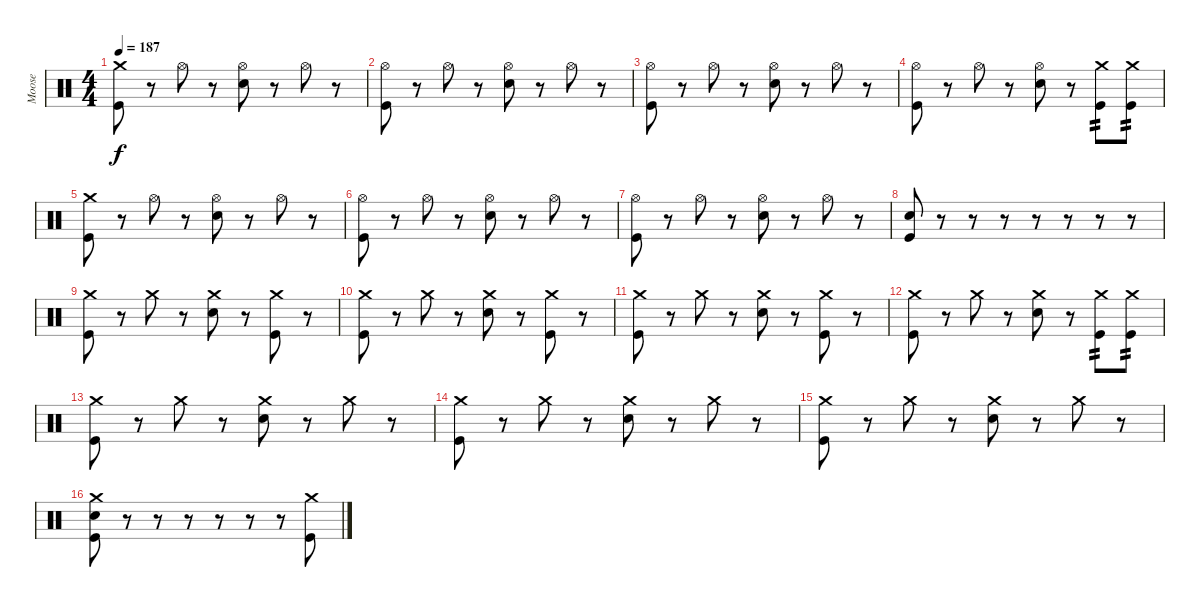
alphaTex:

\track ("Moose" "Moose") {instrument percussion}
\staff {score}
\articulation defaults
\ts (4 4)
\tempo 187
\clef neutral
\ks c
("Crash medium (hit)" "Kick (hit)").8{dy f} r.8 "Hi-Hat (open)".8 r.8 ("Hi-Hat (open)" "Electric Snare (hit)").8 r.8 "Hi-Hat (open)".8 r.8 |
("Hi-Hat (open)" "Kick (hit)").8 r.8 "Hi-Hat (open)".8 r.8 ("Hi-Hat (open)" "Electric Snare (hit)").8 r.8 "Hi-Hat (open)".8 r.8 |
("Hi-Hat (open)" "Kick (hit)").8 r.8 "Hi-Hat (open)".8 r.8 ("Hi-Hat (open)" "Electric Snare (hit)").8 r.8 "Hi-Hat (open)".8 r.8 |
("Hi-Hat (open)" "Kick (hit)").8 r.8 "Hi-Hat (open)".8 r.8 ("Hi-Hat (open)" "Electric Snare (hit)").8 r.8 ("Crash medium (hit)" "Kick (hit)").8{tp 2} ("Crash medium (hit)" "Kick (hit)").8{tp 2} |
("Crash medium (hit)" "Kick (hit)").8 r.8 "Hi-Hat (open)".8 r.8 ("Hi-Hat (open)" "Electric Snare (hit)").8 r.8 "Hi-Hat (open)".8 r.8 |
("Hi-Hat (open)" "Kick (hit)").8 r.8 "Hi-Hat (open)".8 r.8 ("Hi-Hat (open)" "Electric Snare (hit)").8 r.8 "Hi-Hat (open)".8 r.8 |
("Hi-Hat (open)" "Kick (hit)").8 r.8 "Hi-Hat (open)".8 r.8 ("Hi-Hat (open)" "Electric Snare (hit)").8 r.8 "Hi-Hat (open)".8 r.8 |
("Electric Snare (hit)" "Kick (hit)").8 r.8 r.8 r.8 r.8 r.8 r.8 r.8 |
("Crash medium (hit)" "Kick (hit)").8 r.8 "Crash medium (hit)".8 r.8 ("Crash medium (hit)" "Electric Snare (hit)").8 r.8 ("Crash medium (hit)" "Kick (hit)").8 r.8 |
("Crash medium (hit)" "Kick (hit)").8 r.8 "Crash medium (hit)".8 r.8 ("Crash medium (hit)" "Electric Snare (hit)").8 r.8 ("Crash medium (hit)" "Kick (hit)").8 r.8 |
("Crash medium (hit)" "Kick (hit)").8 r.8 "Crash medium (hit)".8 r.8 ("Crash medium (hit)" "Electric Snare (hit)").8 r.8 ("Crash medium (hit)" "Kick (hit)").8 r.8 |
("Crash medium (hit)" "Kick (hit)").8 r.8 "Crash medium (hit)".8 r.8 ("Crash medium (hit)" "Electric Snare (hit)").8 r.8 ("Crash medium (hit)" "Kick (hit)").8{tp 2} ("Crash medium (hit)" "Kick (hit)").8{tp 2} |
("Crash medium (hit)" "Kick (hit)").8 r.8 "Crash medium (hit)".8 r.8 ("Crash medium (hit)" "Electric Snare (hit)").8 r.8 "Crash medium (hit)".8 r.8 |
("Crash medium (hit)" "Kick (hit)").8 r.8 "Crash medium (hit)".8 r.8 ("Crash medium (hit)" "Electric Snare (hit)").8 r.8 "Crash medium (hit)".8 r.8 |
("Crash medium (hit)" "Kick (hit)").8 r.8 "Crash medium (hit)".8 r.8 ("Crash medium (hit)" "Electric Snare (hit)").8 r.8 "Crash medium (hit)".8 r.8 |
("Crash medium (hit)" "Electric Snare (hit)" "Kick (hit)").8 r.8 r.8 r.8 r.8 r.8 r.8 ("Crash medium (hit)" "Kick (hit)").8
